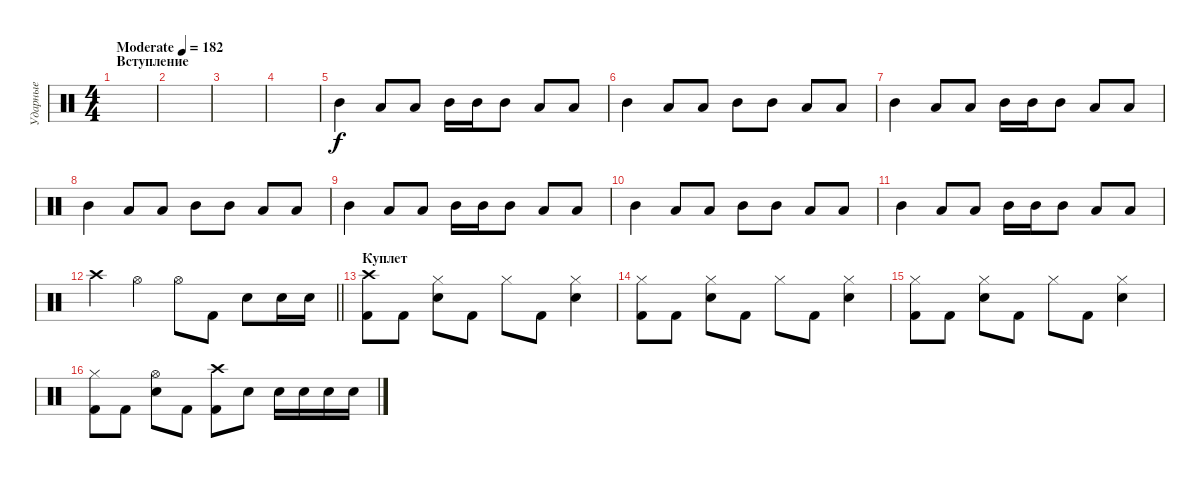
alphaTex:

\track ("Ударные" "Ударные") {instrument percussion}
\staff {score}
\articulation defaults
\ts (4 4)
\section ("" "Вступление")
\tempo (182 "Moderate")
\clef neutral
\ks c
|
|
|
|
"Mid Tom (hit)".4 "Low Tom (hit)".8 "Low Tom (hit)".8 "Mid Tom (hit)".16 "Mid Tom (hit)".16 "Mid Tom (hit)".8 "Low Tom (hit)".8 "Low Tom (hit)".8 |
"Mid Tom (hit)".4 "Low Tom (hit)".8 "Low Tom (hit)".8 "Mid Tom (hit)".8 "Mid Tom (hit)".8 "Low Tom (hit)".8 "Low Tom (hit)".8 |
"Mid Tom (hit)".4 "Low Tom (hit)".8 "Low Tom (hit)".8 "Mid Tom (hit)".16 "Mid Tom (hit)".16 "Mid Tom (hit)".8 "Low Tom (hit)".8 "Low Tom (hit)".8 |
"Mid Tom (hit)".4 "Low Tom (hit)".8 "Low Tom (hit)".8 "Mid Tom (hit)".8 "Mid Tom (hit)".8 "Low Tom (hit)".8 "Low Tom (hit)".8 |
"Mid Tom (hit)".4 "Low Tom (hit)".8 "Low Tom (hit)".8 "Mid Tom (hit)".16 "Mid Tom (hit)".16 "Mid Tom (hit)".8 "Low Tom (hit)".8 "Low Tom (hit)".8 |
"Mid Tom (hit)".4 "Low Tom (hit)".8 "Low Tom (hit)".8 "Mid Tom (hit)".8 "Mid Tom (hit)".8 "Low Tom (hit)".8 "Low Tom (hit)".8 |
"Mid Tom (hit)".4 "Low Tom (hit)".8 "Low Tom (hit)".8 "Mid Tom (hit)".16 "Mid Tom (hit)".16 "Mid Tom (hit)".8 "Low Tom (hit)".8 "Low Tom (hit)".8 |
\barLineRight lightlight "Crash high (hit)".4 "Hi-Hat (open)".4 "Hi-Hat (open)".8 "Kick (hit) 2".8 "Snare (hit) 2".8 "Snare (hit) 2".16 "Snare (hit) 2".16
|
\section ("" "Куплет")
("Crash high (hit)" "Kick (hit) 2").8 "Kick (hit) 2".8 ("Hi-Hat (closed)" "Snare (hit) 2").8 "Kick (hit) 2".8 "Hi-Hat (closed)".8 "Kick (hit) 2".8 ("Hi-Hat (closed)" "Snare (hit) 2").4 |
("Hi-Hat (closed)" "Kick (hit) 2").8 "Kick (hit) 2".8 ("Hi-Hat (closed)" "Snare (hit) 2").8 "Kick (hit) 2".8 "Hi-Hat (closed)".8 "Kick (hit) 2".8 ("Hi-Hat (closed)" "Snare (hit) 2").4 |
("Hi-Hat (closed)" "Kick (hit) 2").8 "Kick (hit) 2".8 ("Hi-Hat (closed)" "Snare (hit) 2").8 "Kick (hit) 2".8 "Hi-Hat (closed)".8 "Kick (hit) 2".8 ("Hi-Hat (closed)" "Snare (hit) 2").4 |
("Hi-Hat (closed)" "Kick (hit) 2").8 "Kick (hit) 2".8 ("Hi-Hat (open)" "Snare (hit) 2").8 "Kick (hit) 2".8 ("Crash high (hit)" "Kick (hit) 2").8 "Snare (hit) 2".8 "Snare (hit) 2".16 "Snare (hit) 2".16 "Snare (hit) 2".16 "Snare (hit) 2".16
